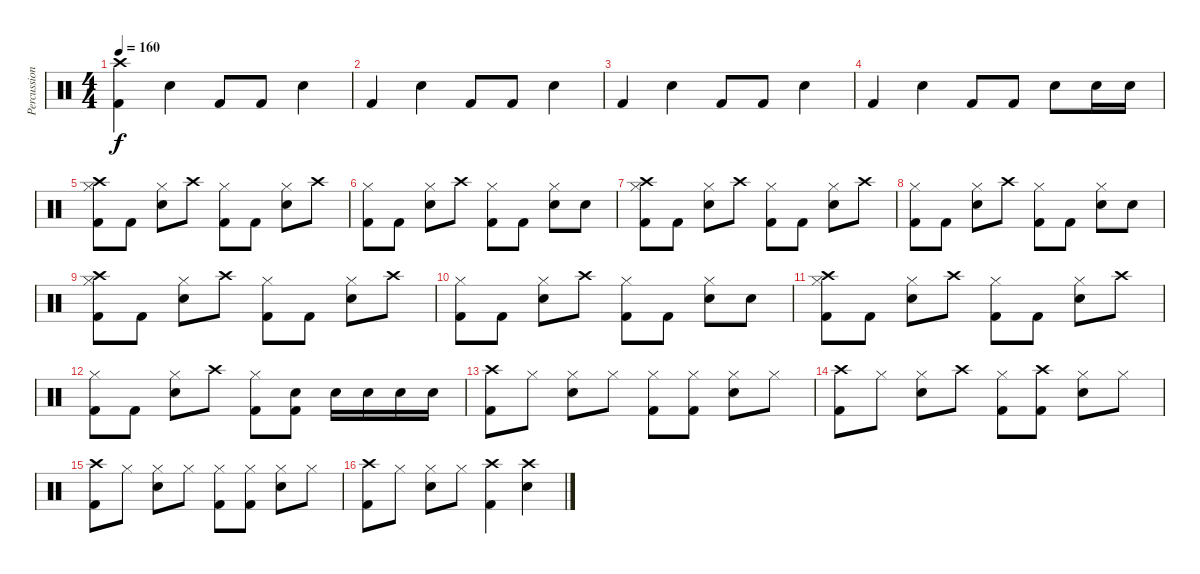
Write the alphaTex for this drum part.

\track ("Percussion" "Percussion") {instrument percussion}
\staff {score}
\articulation defaults
\ts (4 4)
\tempo 160
\clef neutral
\ks c
("Crash high (hit)" "Kick (hit) 2").4{dy f} "Snare (hit) 2".4 "Kick (hit) 2".8 "Kick (hit) 2".8 "Snare (hit) 2".4 |
"Kick (hit) 2".4 "Snare (hit) 2".4 "Kick (hit) 2".8 "Kick (hit) 2".8 "Snare (hit) 2".4 |
"Kick (hit) 2".4 "Snare (hit) 2".4 "Kick (hit) 2".8 "Kick (hit) 2".8 "Snare (hit) 2".4 |
"Kick (hit) 2".4 "Snare (hit) 2".4 "Kick (hit) 2".8 "Kick (hit) 2".8 "Snare (hit) 2".8 "Snare (hit) 2".16 "Snare (hit) 2".16 |
("Crash high (hit)" "Hi-Hat (closed)" "Kick (hit) 2").8 "Kick (hit) 2".8 ("Hi-Hat (closed)" "Snare (hit) 2").8 "Crash high (hit)".8 ("Hi-Hat (closed)" "Kick (hit) 2").8 "Kick (hit) 2".8 ("Hi-Hat (closed)" "Snare (hit) 2").8 "Crash high (hit)".8 |
("Hi-Hat (closed)" "Kick (hit) 2").8 "Kick (hit) 2".8 ("Hi-Hat (closed)" "Snare (hit) 2").8 "Crash high (hit)".8 ("Hi-Hat (closed)" "Kick (hit) 2").8 "Kick (hit) 2".8 ("Hi-Hat (closed)" "Snare (hit) 2").8 "Snare (hit) 2".8 |
("Crash high (hit)" "Hi-Hat (closed)" "Kick (hit) 2").8 "Kick (hit) 2".8 ("Hi-Hat (closed)" "Snare (hit) 2").8 "Crash high (hit)".8 ("Hi-Hat (closed)" "Kick (hit) 2").8 "Kick (hit) 2".8 ("Hi-Hat (closed)" "Snare (hit) 2").8 "Crash high (hit)".8 |
("Hi-Hat (closed)" "Kick (hit) 2").8 "Kick (hit) 2".8 ("Hi-Hat (closed)" "Snare (hit) 2").8 "Crash high (hit)".8 ("Hi-Hat (closed)" "Kick (hit) 2").8 "Kick (hit) 2".8 ("Hi-Hat (closed)" "Snare (hit) 2").8 "Snare (hit) 2".8 |
("Crash high (hit)" "Hi-Hat (closed)" "Kick (hit) 2").8 "Kick (hit) 2".8 ("Hi-Hat (closed)" "Snare (hit) 2").8 "Crash high (hit)".8 ("Hi-Hat (closed)" "Kick (hit) 2").8 "Kick (hit) 2".8 ("Hi-Hat (closed)" "Snare (hit) 2").8 "Crash high (hit)".8 |
("Hi-Hat (closed)" "Kick (hit) 2").8 "Kick (hit) 2".8 ("Hi-Hat (closed)" "Snare (hit) 2").8 "Crash high (hit)".8 ("Hi-Hat (closed)" "Kick (hit) 2").8 "Kick (hit) 2".8 ("Hi-Hat (closed)" "Snare (hit) 2").8 "Snare (hit) 2".8 |
("Crash high (hit)" "Hi-Hat (closed)" "Kick (hit) 2").8 "Kick (hit) 2".8 ("Hi-Hat (closed)" "Snare (hit) 2").8 "Crash high (hit)".8 ("Hi-Hat (closed)" "Kick (hit) 2").8 "Kick (hit) 2".8 ("Hi-Hat (closed)" "Snare (hit) 2").8 "Crash high (hit)".8 |
("Hi-Hat (closed)" "Kick (hit) 2").8 "Kick (hit) 2".8 ("Hi-Hat (closed)" "Snare (hit) 2").8 "Crash high (hit)".8 ("Hi-Hat (closed)" "Kick (hit) 2").8 ("Snare (hit) 2" "Kick (hit) 2").8 "Snare (hit) 2".16 "Snare (hit) 2".16 "Snare (hit) 2".16 "Snare (hit) 2".16 |
("Crash high (hit)" "Kick (hit) 2").8 "Hi-Hat (closed)".8 ("Hi-Hat (closed)" "Snare (hit) 2").8 "Hi-Hat (closed)".8 ("Hi-Hat (closed)" "Kick (hit) 2").8 ("Hi-Hat (closed)" "Kick (hit) 2").8 ("Hi-Hat (closed)" "Snare (hit) 2").8 "Hi-Hat (closed)".8 |
("Crash high (hit)" "Kick (hit) 2").8 "Hi-Hat (closed)".8 ("Hi-Hat (closed)" "Snare (hit) 2").8 "Crash high (hit)".8 ("Hi-Hat (closed)" "Kick (hit) 2").8 ("Crash high (hit)" "Kick (hit) 2").8 ("Hi-Hat (closed)" "Snare (hit) 2").8 "Hi-Hat (closed)".8 |
("Crash high (hit)" "Kick (hit) 2").8 "Hi-Hat (closed)".8 ("Hi-Hat (closed)" "Snare (hit) 2").8 "Hi-Hat (closed)".8 ("Hi-Hat (closed)" "Kick (hit) 2").8 ("Hi-Hat (closed)" "Kick (hit) 2").8 ("Hi-Hat (closed)" "Snare (hit) 2").8 "Hi-Hat (closed)".8 |
("Crash high (hit)" "Kick (hit) 2").8 "Hi-Hat (closed)".8 ("Hi-Hat (closed)" "Snare (hit) 2").8 "Hi-Hat (closed)".8 ("Crash high (hit)" "Kick (hit) 2").4 ("Crash high (hit)" "Snare (hit) 2").4
